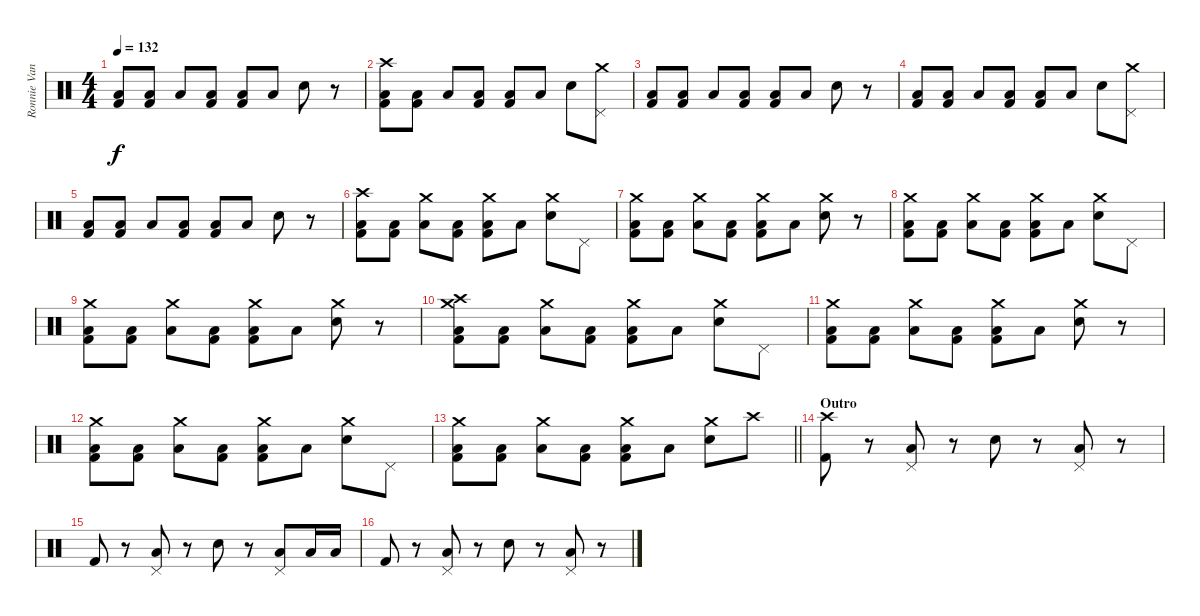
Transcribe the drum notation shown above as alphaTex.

\track ("Ronnie Vannucci Jr.'s drums" "Ronnie Van") {instrument percussion}
\staff {score}
\articulation defaults
\ts (4 4)
\tempo 132
\clef neutral
\ks c
("Low Floor Tom (hit)" "Kick (hit) 2").8{dy f} ("Low Floor Tom (hit)" "Kick (hit) 2").8 "Low Floor Tom (hit)".8 ("Low Floor Tom (hit)" "Kick (hit) 2").8 ("Low Floor Tom (hit)" "Kick (hit) 2").8 "Low Floor Tom (hit)".8 "Electric Snare (hit)".8 r.8 |
("Crash high (hit)" "Low Floor Tom (hit)" "Kick (hit) 2").8 ("Low Floor Tom (hit)" "Kick (hit) 2").8 "Low Floor Tom (hit)".8 ("Low Floor Tom (hit)" "Kick (hit) 2").8 ("Low Floor Tom (hit)" "Kick (hit) 2").8 "Low Floor Tom (hit)".8 "Electric Snare (hit)".8 ("Crash medium (hit)" "Pedal Hi-Hat (hit)").8 |
("Low Floor Tom (hit)" "Kick (hit) 2").8 ("Low Floor Tom (hit)" "Kick (hit) 2").8 "Low Floor Tom (hit)".8 ("Low Floor Tom (hit)" "Kick (hit) 2").8 ("Low Floor Tom (hit)" "Kick (hit) 2").8 "Low Floor Tom (hit)".8 "Electric Snare (hit)".8 r.8 |
("Low Floor Tom (hit)" "Kick (hit) 2").8 ("Low Floor Tom (hit)" "Kick (hit) 2").8 "Low Floor Tom (hit)".8 ("Low Floor Tom (hit)" "Kick (hit) 2").8 ("Low Floor Tom (hit)" "Kick (hit) 2").8 "Low Floor Tom (hit)".8 "Electric Snare (hit)".8 ("Crash medium (hit)" "Pedal Hi-Hat (hit)").8 |
("Low Floor Tom (hit)" "Kick (hit) 2").8 ("Low Floor Tom (hit)" "Kick (hit) 2").8 "Low Floor Tom (hit)".8 ("Low Floor Tom (hit)" "Kick (hit) 2").8 ("Low Floor Tom (hit)" "Kick (hit) 2").8 "Low Floor Tom (hit)".8 "Electric Snare (hit)".8 r.8 |
("Crash high (hit)" "Low Floor Tom (hit)" "Kick (hit) 2").8 ("Low Floor Tom (hit)" "Kick (hit) 2").8 ("Crash medium (hit)" "Low Floor Tom (hit)").8 ("Low Floor Tom (hit)" "Kick (hit) 2").8 ("Crash medium (hit)" "Low Floor Tom (hit)" "Kick (hit) 2").8 "Low Floor Tom (hit)".8 ("Crash medium (hit)" "Electric Snare (hit)").8 "Pedal Hi-Hat (hit)".8 |
("Crash medium (hit)" "Low Floor Tom (hit)" "Kick (hit) 2").8 ("Low Floor Tom (hit)" "Kick (hit) 2").8 ("Crash medium (hit)" "Low Floor Tom (hit)").8 ("Low Floor Tom (hit)" "Kick (hit) 2").8 ("Crash medium (hit)" "Low Floor Tom (hit)" "Kick (hit) 2").8 "Low Floor Tom (hit)".8 ("Crash medium (hit)" "Electric Snare (hit)").8 r.8 |
("Crash medium (hit)" "Low Floor Tom (hit)" "Kick (hit) 2").8 ("Low Floor Tom (hit)" "Kick (hit) 2").8 ("Crash medium (hit)" "Low Floor Tom (hit)").8 ("Low Floor Tom (hit)" "Kick (hit) 2").8 ("Crash medium (hit)" "Low Floor Tom (hit)" "Kick (hit) 2").8 "Low Floor Tom (hit)".8 ("Crash medium (hit)" "Electric Snare (hit)").8 "Pedal Hi-Hat (hit)".8 |
("Crash medium (hit)" "Low Floor Tom (hit)" "Kick (hit) 2").8 ("Low Floor Tom (hit)" "Kick (hit) 2").8 ("Crash medium (hit)" "Low Floor Tom (hit)").8 ("Low Floor Tom (hit)" "Kick (hit) 2").8 ("Crash medium (hit)" "Low Floor Tom (hit)" "Kick (hit) 2").8 "Low Floor Tom (hit)".8 ("Crash medium (hit)" "Electric Snare (hit)").8 r.8 |
("Crash high (hit)" "Crash medium (hit)" "Low Floor Tom (hit)" "Kick (hit) 2").8 ("Low Floor Tom (hit)" "Kick (hit) 2").8 ("Crash medium (hit)" "Low Floor Tom (hit)").8 ("Low Floor Tom (hit)" "Kick (hit) 2").8 ("Crash medium (hit)" "Low Floor Tom (hit)" "Kick (hit) 2").8 "Low Floor Tom (hit)".8 ("Crash medium (hit)" "Electric Snare (hit)").8 "Pedal Hi-Hat (hit)".8 |
("Crash medium (hit)" "Low Floor Tom (hit)" "Kick (hit) 2").8 ("Low Floor Tom (hit)" "Kick (hit) 2").8 ("Crash medium (hit)" "Low Floor Tom (hit)").8 ("Low Floor Tom (hit)" "Kick (hit) 2").8 ("Crash medium (hit)" "Low Floor Tom (hit)" "Kick (hit) 2").8 "Low Floor Tom (hit)".8 ("Crash medium (hit)" "Electric Snare (hit)").8 r.8 |
("Crash medium (hit)" "Low Floor Tom (hit)" "Kick (hit) 2").8 ("Low Floor Tom (hit)" "Kick (hit) 2").8 ("Crash medium (hit)" "Low Floor Tom (hit)").8 ("Low Floor Tom (hit)" "Kick (hit) 2").8 ("Crash medium (hit)" "Low Floor Tom (hit)" "Kick (hit) 2").8 "Low Floor Tom (hit)".8 ("Crash medium (hit)" "Electric Snare (hit)").8 "Pedal Hi-Hat (hit)".8 |
\barLineRight lightlight
("Crash medium (hit)" "Low Floor Tom (hit)" "Kick (hit) 2").8 ("Low Floor Tom (hit)" "Kick (hit) 2").8 ("Crash medium (hit)" "Low Floor Tom (hit)").8 ("Low Floor Tom (hit)" "Kick (hit) 2").8 ("Crash medium (hit)" "Low Floor Tom (hit)" "Kick (hit) 2").8 "Low Floor Tom (hit)".8 ("Crash medium (hit)" "Electric Snare (hit)").8 "Crash high (hit)".8 |
\section ("" "Outro")
("Crash high (hit)" "Kick (hit) 2").8 r.8 ("Pedal Hi-Hat (hit)" "Low Floor Tom (hit)").8 r.8 "Electric Snare (hit)".8 r.8 ("Pedal Hi-Hat (hit)" "Low Floor Tom (hit)").8 r.8 |
"Kick (hit) 2".8 r.8 ("Pedal Hi-Hat (hit)" "Low Floor Tom (hit)").8 r.8 "Electric Snare (hit)".8 r.8 ("Pedal Hi-Hat (hit)" "Low Floor Tom (hit)").8 "Low Floor Tom (hit)".16 "Low Floor Tom (hit)".16 |
"Kick (hit) 2".8 r.8 ("Pedal Hi-Hat (hit)" "Low Floor Tom (hit)").8 r.8 "Electric Snare (hit)".8 r.8 ("Pedal Hi-Hat (hit)" "Low Floor Tom (hit)").8 r.8
